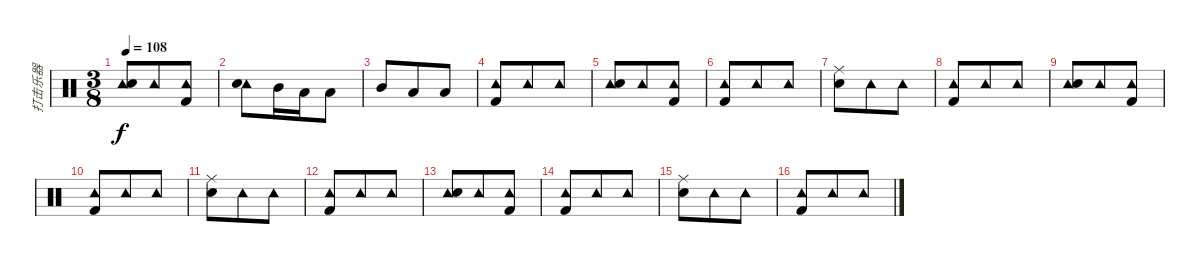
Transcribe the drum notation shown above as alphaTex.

\track ("打击乐器" "打击乐器") {instrument percussion}
\staff {score}
\articulation defaults
\ts (3 8)
\tempo 108
\clef neutral
\ks c
("Tambourine (hit)" "Snare (hit) 2").8{dy f} "Tambourine (hit)".8 ("Tambourine (hit)" "Kick (hit) 2").8 |
("Tambourine (hit)" "Snare (hit) 2").8 "Mid Tom (hit)".16 "Low Tom (hit)".16 "Low Floor Tom (hit)".8 |
"Mid Tom (hit)".8 "Low Tom (hit)".8 "Low Floor Tom (hit)".8 |
("Tambourine (hit)" "Kick (hit) 2").8 "Tambourine (hit)".8 "Tambourine (hit)".8 |
("Tambourine (hit)" "Snare (hit) 2").8 "Tambourine (hit)".8 ("Tambourine (hit)" "Kick (hit) 2").8 |
("Tambourine (hit)" "Kick (hit) 2").8 "Tambourine (hit)".8 "Tambourine (hit)".8 |
("Ride (middle)" "Snare (hit) 2").8 "Tambourine (hit)".8 "Tambourine (hit)".8 |
("Tambourine (hit)" "Kick (hit) 2").8 "Tambourine (hit)".8 "Tambourine (hit)".8 |
("Tambourine (hit)" "Snare (hit) 2").8 "Tambourine (hit)".8 ("Tambourine (hit)" "Kick (hit) 2").8 |
("Tambourine (hit)" "Kick (hit) 2").8 "Tambourine (hit)".8 "Tambourine (hit)".8 |
("Ride (middle)" "Snare (hit) 2").8 "Tambourine (hit)".8 "Tambourine (hit)".8 |
("Tambourine (hit)" "Kick (hit) 2").8 "Tambourine (hit)".8 "Tambourine (hit)".8 |
("Tambourine (hit)" "Snare (hit) 2").8 "Tambourine (hit)".8 ("Tambourine (hit)" "Kick (hit) 2").8 |
("Tambourine (hit)" "Kick (hit) 2").8 "Tambourine (hit)".8 "Tambourine (hit)".8 |
("Ride (middle)" "Snare (hit) 2").8 "Tambourine (hit)".8 "Tambourine (hit)".8 |
("Tambourine (hit)" "Kick (hit) 2").8 "Tambourine (hit)".8 "Tambourine (hit)".8
